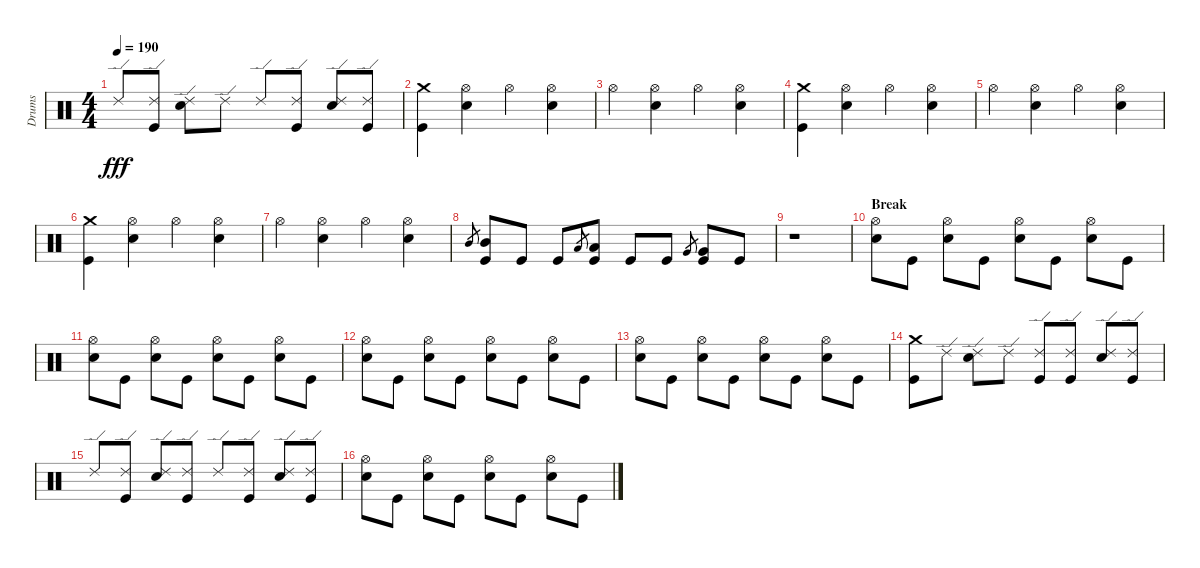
\track ("Drums" "Drums") {instrument percussion}
\staff {score}
\articulation defaults
\ts (4 4)
\tempo 190
\clef neutral
\ks c "Ride (edge) 2".8{dy fff}
("Ride (edge) 2" "Kick (hit)").8 ("Ride (edge) 2" "Snare (hit) 2").8 "Ride (edge) 2".8 "Ride (edge) 2".8 ("Ride (edge) 2" "Kick (hit)").8 ("Ride (edge) 2" "Snare (hit) 2").8 ("Ride (edge) 2" "Kick (hit)").8 |
("Crash medium (hit)" "Kick (hit)").4 ("Hi-Hat (open)" "Snare (hit) 2").4 "Hi-Hat (open)".4 ("Hi-Hat (open)" "Snare (hit) 2").4 |
"Hi-Hat (open)".4 ("Hi-Hat (open)" "Snare (hit) 2").4 "Hi-Hat (open)".4 ("Hi-Hat (open)" "Snare (hit) 2").4 |
("Crash medium (hit)" "Kick (hit)").4 ("Hi-Hat (open)" "Snare (hit) 2").4 "Hi-Hat (open)".4 ("Hi-Hat (open)" "Snare (hit) 2").4 |
"Hi-Hat (open)".4 ("Hi-Hat (open)" "Snare (hit) 2").4 "Hi-Hat (open)".4 ("Hi-Hat (open)" "Snare (hit) 2").4 |
("Crash medium (hit)" "Kick (hit)").4 ("Hi-Hat (open)" "Snare (hit) 2").4 "Hi-Hat (open)".4 ("Hi-Hat (open)" "Snare (hit) 2").4 |
"Hi-Hat (open)".4 ("Hi-Hat (open)" "Snare (hit) 2").4 "Hi-Hat (open)".4 ("Hi-Hat (open)" "Snare (hit) 2").4 |
"Mid Tom (hit)".8{gr} ("Mid Tom (hit)" "Kick (hit)").8 "Kick (hit)".8 "Kick (hit)".8 "Low Tom (hit)".8{gr} ("Low Tom (hit)" "Kick (hit)").8 "Kick (hit)".8 "Kick (hit)".8 "Very Low Tom (hit)".8{gr} ("Very Low Tom (hit)" "Kick (hit)").8 "Kick (hit)".8 |
r.1 |
\section ("" "Break")
("Hi-Hat (open)" "Snare (hit) 2").8 "Kick (hit)".8 ("Hi-Hat (open)" "Snare (hit) 2").8 "Kick (hit)".8 ("Hi-Hat (open)" "Snare (hit) 2").8 "Kick (hit)".8 ("Hi-Hat (open)" "Snare (hit) 2").8 "Kick (hit)".8 |
("Hi-Hat (open)" "Snare (hit) 2").8 "Kick (hit)".8 ("Hi-Hat (open)" "Snare (hit) 2").8 "Kick (hit)".8 ("Hi-Hat (open)" "Snare (hit) 2").8 "Kick (hit)".8 ("Hi-Hat (open)" "Snare (hit) 2").8 "Kick (hit)".8 |
("Hi-Hat (open)" "Snare (hit) 2").8 "Kick (hit)".8 ("Hi-Hat (open)" "Snare (hit) 2").8 "Kick (hit)".8 ("Hi-Hat (open)" "Snare (hit) 2").8 "Kick (hit)".8 ("Hi-Hat (open)" "Snare (hit) 2").8 "Kick (hit)".8 |
("Hi-Hat (open)" "Snare (hit) 2").8 "Kick (hit)".8 ("Hi-Hat (open)" "Snare (hit) 2").8 "Kick (hit)".8 ("Hi-Hat (open)" "Snare (hit) 2").8 "Kick (hit)".8 ("Hi-Hat (open)" "Snare (hit) 2").8 "Kick (hit)".8 |
("Crash medium (hit)" "Kick (hit)").8 "Ride (edge) 2".8 ("Ride (edge) 2" "Snare (hit) 2").8 "Ride (edge) 2".8 ("Ride (edge) 2" "Kick (hit)").8 ("Ride (edge) 2" "Kick (hit)").8 ("Ride (edge) 2" "Snare (hit) 2").8 ("Ride (edge) 2" "Kick (hit)").8 |
"Ride (edge) 2".8 ("Ride (edge) 2" "Kick (hit)").8 ("Ride (edge) 2" "Snare (hit) 2").8 ("Ride (edge) 2" "Kick (hit)").8 "Ride (edge) 2".8 ("Ride (edge) 2" "Kick (hit)").8 ("Ride (edge) 2" "Snare (hit) 2").8 ("Ride (edge) 2" "Kick (hit)").8 |
("Hi-Hat (open)" "Snare (hit) 2").8 "Kick (hit)".8 ("Hi-Hat (open)" "Snare (hit) 2").8 "Kick (hit)".8 ("Hi-Hat (open)" "Snare (hit) 2").8 "Kick (hit)".8 ("Hi-Hat (open)" "Snare (hit) 2").8 "Kick (hit)".8
